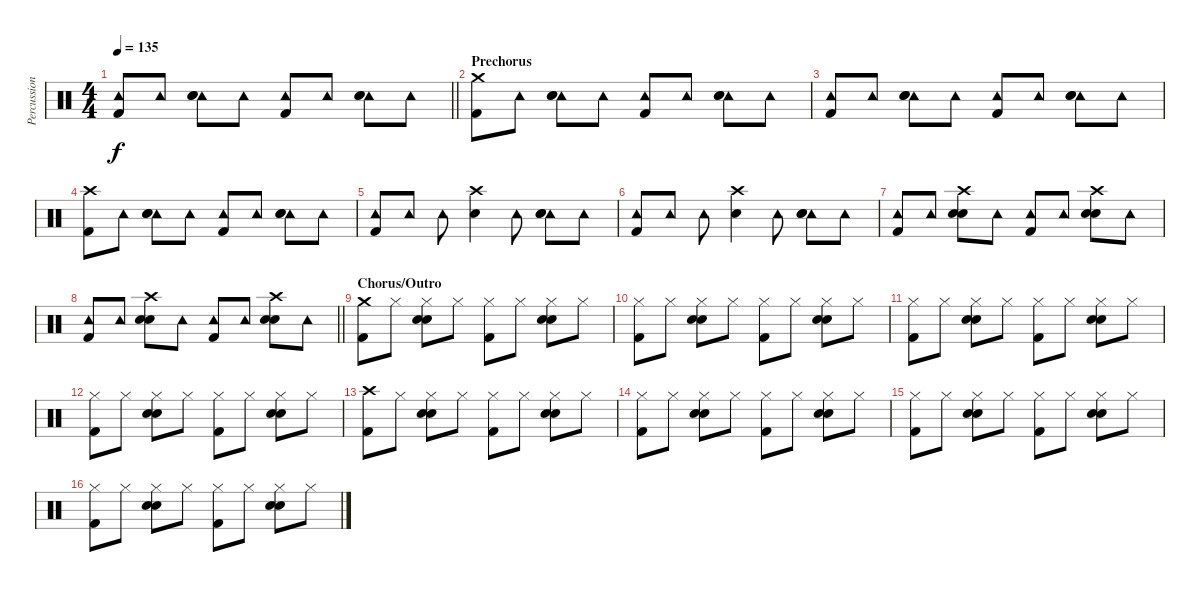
\track ("Percussion" "Percussion") {instrument percussion}
\staff {score}
\articulation defaults
\ts (4 4)
\tempo 135
\clef neutral
\barLineRight lightlight
\ks c
("Tambourine (hit)" "Kick (hit) 2").8{dy f} "Tambourine (hit)".8 ("Tambourine (hit)" "Snare (hit) 2" "Hand Clap (hit)").8 "Tambourine (hit)".8 ("Tambourine (hit)" "Kick (hit) 2").8 "Tambourine (hit)".8 ("Tambourine (hit)" "Snare (hit) 2" "Hand Clap (hit)").8 "Tambourine (hit)".8 |
\section ("" "Prechorus")
("Crash medium (hit)" "Kick (hit) 2").8 "Tambourine (hit)".8 ("Tambourine (hit)" "Snare (hit) 2" "Hand Clap (hit)").8 "Tambourine (hit)".8 ("Tambourine (hit)" "Kick (hit) 2").8 "Tambourine (hit)".8 ("Tambourine (hit)" "Snare (hit) 2" "Hand Clap (hit)").8 "Tambourine (hit)".8 |
("Tambourine (hit)" "Kick (hit) 2").8 "Tambourine (hit)".8 ("Tambourine (hit)" "Snare (hit) 2" "Hand Clap (hit)").8 "Tambourine (hit)".8 ("Tambourine (hit)" "Kick (hit) 2").8 "Tambourine (hit)".8 ("Tambourine (hit)" "Snare (hit) 2" "Hand Clap (hit)").8 "Tambourine (hit)".8 |
("Crash high (hit)" "Kick (hit) 2").8 "Tambourine (hit)".8 ("Tambourine (hit)" "Snare (hit) 2" "Hand Clap (hit)").8 "Tambourine (hit)".8 ("Tambourine (hit)" "Kick (hit) 2").8 "Tambourine (hit)".8 ("Tambourine (hit)" "Snare (hit) 2" "Hand Clap (hit)").8 "Tambourine (hit)".8 |
("Tambourine (hit)" "Kick (hit) 2").8 "Tambourine (hit)".8 "Tambourine (hit)".8 ("Crash high (hit)" "Snare (hit) 2").4 "Tambourine (hit)".8 ("Tambourine (hit)" "Snare (hit) 2" "Hand Clap (hit)").8 "Tambourine (hit)".8 |
("Tambourine (hit)" "Kick (hit) 2").8 "Tambourine (hit)".8 "Tambourine (hit)".8 ("Crash high (hit)" "Snare (hit) 2").4 "Tambourine (hit)".8 ("Tambourine (hit)" "Snare (hit) 2" "Hand Clap (hit)").8 "Tambourine (hit)".8 |
("Tambourine (hit)" "Kick (hit) 2").8 "Tambourine (hit)".8 ("Crash high (hit)" "Snare (hit) 2" "Hand Clap (hit)").8 "Tambourine (hit)".8 ("Tambourine (hit)" "Kick (hit) 2").8 "Tambourine (hit)".8 ("Crash high (hit)" "Snare (hit) 2" "Hand Clap (hit)").8 "Tambourine (hit)".8 |
\barLineRight lightlight
("Tambourine (hit)" "Kick (hit) 2").8 "Tambourine (hit)".8 ("Crash high (hit)" "Snare (hit) 2" "Hand Clap (hit)").8 "Tambourine (hit)".8 ("Tambourine (hit)" "Kick (hit) 2").8 "Tambourine (hit)".8 ("Crash high (hit)" "Snare (hit) 2" "Hand Clap (hit)").8 "Tambourine (hit)".8 |
\section ("" "Chorus/Outro")
("Crash medium (hit)" "Kick (hit) 2").8 "Hi-Hat (closed)".8 ("Hi-Hat (closed)" "Snare (hit) 2" "Hand Clap (hit)").8 "Hi-Hat (closed)".8 ("Hi-Hat (closed)" "Kick (hit) 2").8 "Hi-Hat (closed)".8 ("Hi-Hat (closed)" "Snare (hit) 2" "Hand Clap (hit)").8 "Hi-Hat (closed)".8 |
("Hi-Hat (closed)" "Kick (hit) 2").8 "Hi-Hat (closed)".8 ("Hi-Hat (closed)" "Snare (hit) 2" "Hand Clap (hit)").8 "Hi-Hat (closed)".8 ("Hi-Hat (closed)" "Kick (hit) 2").8 "Hi-Hat (closed)".8 ("Hi-Hat (closed)" "Snare (hit) 2" "Hand Clap (hit)").8 "Hi-Hat (closed)".8 |
("Hi-Hat (closed)" "Kick (hit) 2").8 "Hi-Hat (closed)".8 ("Hi-Hat (closed)" "Snare (hit) 2" "Hand Clap (hit)").8 "Hi-Hat (closed)".8 ("Hi-Hat (closed)" "Kick (hit) 2").8 "Hi-Hat (closed)".8 ("Hi-Hat (closed)" "Snare (hit) 2" "Hand Clap (hit)").8 "Hi-Hat (closed)".8 |
("Hi-Hat (closed)" "Kick (hit) 2").8 "Hi-Hat (closed)".8 ("Hi-Hat (closed)" "Snare (hit) 2" "Hand Clap (hit)").8 "Hi-Hat (closed)".8 ("Hi-Hat (closed)" "Kick (hit) 2").8 "Hi-Hat (closed)".8 ("Hi-Hat (closed)" "Snare (hit) 2" "Hand Clap (hit)").8 "Hi-Hat (closed)".8 |
("Crash high (hit)" "Kick (hit) 2").8 "Hi-Hat (closed)".8 ("Hi-Hat (closed)" "Snare (hit) 2" "Hand Clap (hit)").8 "Hi-Hat (closed)".8 ("Hi-Hat (closed)" "Kick (hit) 2").8 "Hi-Hat (closed)".8 ("Hi-Hat (closed)" "Snare (hit) 2" "Hand Clap (hit)").8 "Hi-Hat (closed)".8 |
("Hi-Hat (closed)" "Kick (hit) 2").8 "Hi-Hat (closed)".8 ("Hi-Hat (closed)" "Snare (hit) 2" "Hand Clap (hit)").8 "Hi-Hat (closed)".8 ("Hi-Hat (closed)" "Kick (hit) 2").8 "Hi-Hat (closed)".8 ("Hi-Hat (closed)" "Snare (hit) 2" "Hand Clap (hit)").8 "Hi-Hat (closed)".8 |
("Hi-Hat (closed)" "Kick (hit) 2").8 "Hi-Hat (closed)".8 ("Hi-Hat (closed)" "Snare (hit) 2" "Hand Clap (hit)").8 "Hi-Hat (closed)".8 ("Hi-Hat (closed)" "Kick (hit) 2").8 "Hi-Hat (closed)".8 ("Hi-Hat (closed)" "Snare (hit) 2" "Hand Clap (hit)").8 "Hi-Hat (closed)".8 |
("Hi-Hat (closed)" "Kick (hit) 2").8 "Hi-Hat (closed)".8 ("Hi-Hat (closed)" "Snare (hit) 2" "Hand Clap (hit)").8 "Hi-Hat (closed)".8 ("Hi-Hat (closed)" "Kick (hit) 2").8 "Hi-Hat (closed)".8 ("Hi-Hat (closed)" "Snare (hit) 2" "Hand Clap (hit)").8 "Hi-Hat (closed)".8
